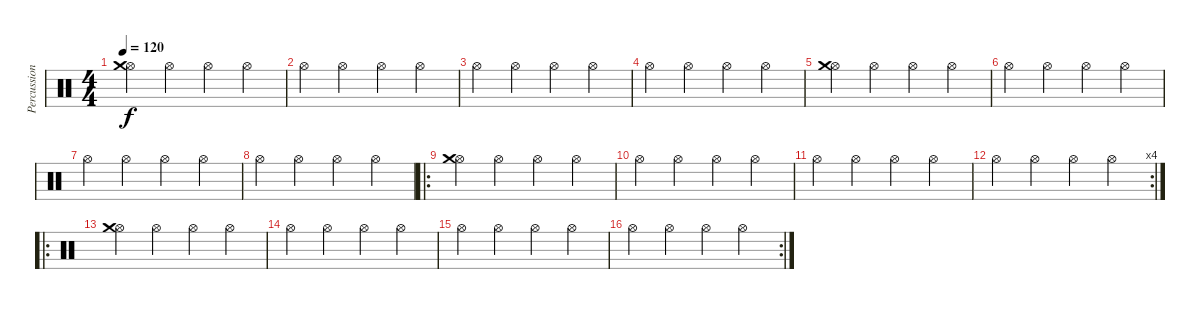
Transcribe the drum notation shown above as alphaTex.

\track ("Percussions" "Percussion") {instrument percussion}
\staff {score}
\articulation defaults
\ts (4 4)
\tempo 120
\clef neutral
\ks c
("Hi-Hat (open)" "Crash medium (hit)").4{dy f} "Hi-Hat (open)".4 "Hi-Hat (open)".4 "Hi-Hat (open)".4 |
"Hi-Hat (open)".4 "Hi-Hat (open)".4 "Hi-Hat (open)".4 "Hi-Hat (open)".4 |
"Hi-Hat (open)".4 "Hi-Hat (open)".4 "Hi-Hat (open)".4 "Hi-Hat (open)".4 |
"Hi-Hat (open)".4 "Hi-Hat (open)".4 "Hi-Hat (open)".4 "Hi-Hat (open)".4 |
("Hi-Hat (open)" "Crash medium (hit)").4 "Hi-Hat (open)".4 "Hi-Hat (open)".4 "Hi-Hat (open)".4 |
"Hi-Hat (open)".4 "Hi-Hat (open)".4 "Hi-Hat (open)".4 "Hi-Hat (open)".4 |
"Hi-Hat (open)".4 "Hi-Hat (open)".4 "Hi-Hat (open)".4 "Hi-Hat (open)".4 |
"Hi-Hat (open)".4 "Hi-Hat (open)".4 "Hi-Hat (open)".4 "Hi-Hat (open)".4 |
\ro
("Hi-Hat (open)" "Crash medium (hit)").4 "Hi-Hat (open)".4 "Hi-Hat (open)".4 "Hi-Hat (open)".4 |
"Hi-Hat (open)".4 "Hi-Hat (open)".4 "Hi-Hat (open)".4 "Hi-Hat (open)".4 |
"Hi-Hat (open)".4 "Hi-Hat (open)".4 "Hi-Hat (open)".4 "Hi-Hat (open)".4 |
\rc 4 "Hi-Hat (open)".4 "Hi-Hat (open)".4 "Hi-Hat (open)".4 "Hi-Hat (open)".4
|
\ro
("Hi-Hat (open)" "Crash medium (hit)").4 "Hi-Hat (open)".4 "Hi-Hat (open)".4 "Hi-Hat (open)".4 |
"Hi-Hat (open)".4 "Hi-Hat (open)".4 "Hi-Hat (open)".4 "Hi-Hat (open)".4 |
"Hi-Hat (open)".4 "Hi-Hat (open)".4 "Hi-Hat (open)".4 "Hi-Hat (open)".4 |
\rc 2 "Hi-Hat (open)".4 "Hi-Hat (open)".4 "Hi-Hat (open)".4 "Hi-Hat (open)".4
